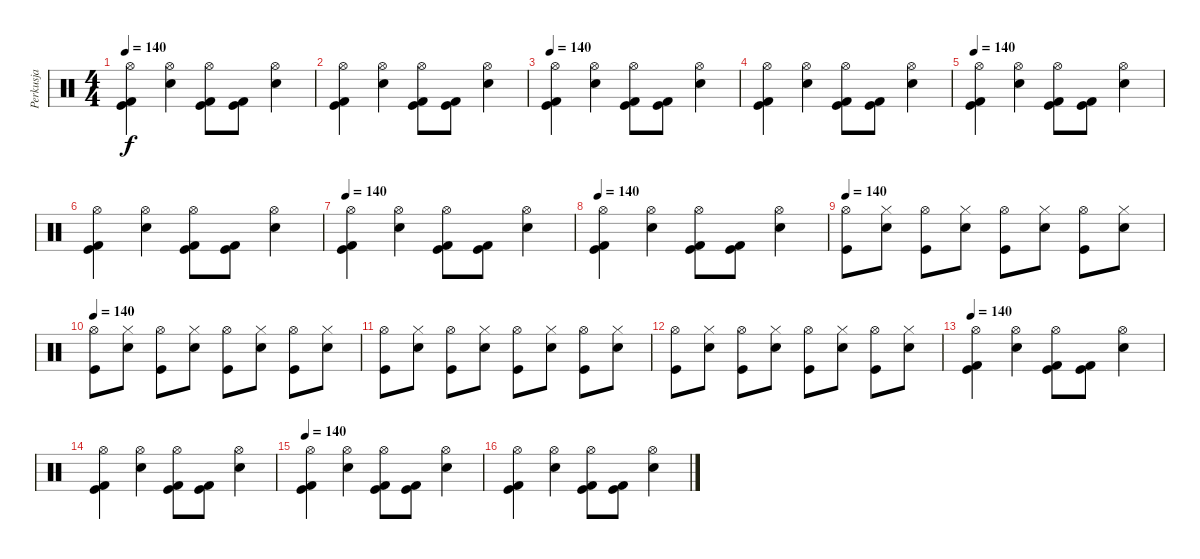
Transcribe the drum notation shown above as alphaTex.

\track ("Perkusja" "Perkusja") {instrument percussion}
\staff {score}
\articulation defaults
\ts (4 4)
\tempo 140
\clef neutral
\ks c
("Hi-Hat (open)" "Kick (hit)" "Kick (hit) 2").4{dy f} ("Hi-Hat (open)" "Snare (hit) 2").4 ("Hi-Hat (open)" "Kick (hit)" "Kick (hit) 2").8 ("Kick (hit)" "Kick (hit) 2").8 ("Hi-Hat (open)" "Snare (hit) 2").4 |
("Hi-Hat (open)" "Kick (hit)" "Kick (hit) 2").4 ("Hi-Hat (open)" "Snare (hit) 2").4 ("Hi-Hat (open)" "Kick (hit)" "Kick (hit) 2").8 ("Kick (hit)" "Kick (hit) 2").8 ("Hi-Hat (open)" "Snare (hit) 2").4 |
\tempo 140
("Hi-Hat (open)" "Kick (hit)" "Kick (hit) 2").4 ("Hi-Hat (open)" "Snare (hit) 2").4 ("Hi-Hat (open)" "Kick (hit)" "Kick (hit) 2").8 ("Kick (hit)" "Kick (hit) 2").8 ("Hi-Hat (open)" "Snare (hit) 2").4 |
("Hi-Hat (open)" "Kick (hit)" "Kick (hit) 2").4 ("Hi-Hat (open)" "Snare (hit) 2").4 ("Hi-Hat (open)" "Kick (hit)" "Kick (hit) 2").8 ("Kick (hit)" "Kick (hit) 2").8 ("Hi-Hat (open)" "Snare (hit) 2").4 |
\tempo 140
("Hi-Hat (open)" "Kick (hit)" "Kick (hit) 2").4 ("Hi-Hat (open)" "Snare (hit) 2").4 ("Hi-Hat (open)" "Kick (hit)" "Kick (hit) 2").8 ("Kick (hit)" "Kick (hit) 2").8 ("Hi-Hat (open)" "Snare (hit) 2").4 |
("Hi-Hat (open)" "Kick (hit)" "Kick (hit) 2").4 ("Hi-Hat (open)" "Snare (hit) 2").4 ("Hi-Hat (open)" "Kick (hit)" "Kick (hit) 2").8 ("Kick (hit)" "Kick (hit) 2").8 ("Hi-Hat (open)" "Snare (hit) 2").4 |
\tempo 140
("Hi-Hat (open)" "Kick (hit)" "Kick (hit) 2").4 ("Hi-Hat (open)" "Snare (hit) 2").4 ("Hi-Hat (open)" "Kick (hit)" "Kick (hit) 2").8 ("Kick (hit)" "Kick (hit) 2").8 ("Hi-Hat (open)" "Snare (hit) 2").4 |
\tempo 140
("Hi-Hat (open)" "Kick (hit)" "Kick (hit) 2").4 ("Hi-Hat (open)" "Snare (hit) 2").4 ("Hi-Hat (open)" "Kick (hit)" "Kick (hit) 2").8 ("Kick (hit)" "Kick (hit) 2").8 ("Hi-Hat (open)" "Snare (hit) 2").4 |
\tempo 140
("Hi-Hat (open)" "Kick (hit)").8 ("Hi-Hat (closed)" "Snare (hit) 2").8 ("Hi-Hat (open)" "Kick (hit)").8 ("Hi-Hat (closed)" "Snare (hit) 2").8 ("Hi-Hat (open)" "Kick (hit)").8 ("Hi-Hat (closed)" "Snare (hit) 2").8 ("Hi-Hat (open)" "Kick (hit)").8 ("Hi-Hat (closed)" "Snare (hit) 2").8 |
\tempo 140
("Hi-Hat (open)" "Kick (hit)").8 ("Hi-Hat (closed)" "Snare (hit) 2").8 ("Hi-Hat (open)" "Kick (hit)").8 ("Hi-Hat (closed)" "Snare (hit) 2").8 ("Hi-Hat (open)" "Kick (hit)").8 ("Hi-Hat (closed)" "Snare (hit) 2").8 ("Hi-Hat (open)" "Kick (hit)").8 ("Hi-Hat (closed)" "Snare (hit) 2").8 |
("Hi-Hat (open)" "Kick (hit)").8 ("Hi-Hat (closed)" "Snare (hit) 2").8 ("Hi-Hat (open)" "Kick (hit)").8 ("Hi-Hat (closed)" "Snare (hit) 2").8 ("Hi-Hat (open)" "Kick (hit)").8 ("Hi-Hat (closed)" "Snare (hit) 2").8 ("Hi-Hat (open)" "Kick (hit)").8 ("Hi-Hat (closed)" "Snare (hit) 2").8 |
("Hi-Hat (open)" "Kick (hit)").8 ("Hi-Hat (closed)" "Snare (hit) 2").8 ("Hi-Hat (open)" "Kick (hit)").8 ("Hi-Hat (closed)" "Snare (hit) 2").8 ("Hi-Hat (open)" "Kick (hit)").8 ("Hi-Hat (closed)" "Snare (hit) 2").8 ("Hi-Hat (open)" "Kick (hit)").8 ("Hi-Hat (closed)" "Snare (hit) 2").8 |
\tempo 140
("Hi-Hat (open)" "Kick (hit)" "Kick (hit) 2").4 ("Hi-Hat (open)" "Snare (hit) 2").4 ("Hi-Hat (open)" "Kick (hit)" "Kick (hit) 2").8 ("Kick (hit)" "Kick (hit) 2").8 ("Hi-Hat (open)" "Snare (hit) 2").4 |
("Hi-Hat (open)" "Kick (hit)" "Kick (hit) 2").4 ("Hi-Hat (open)" "Snare (hit) 2").4 ("Hi-Hat (open)" "Kick (hit)" "Kick (hit) 2").8 ("Kick (hit)" "Kick (hit) 2").8 ("Hi-Hat (open)" "Snare (hit) 2").4 |
\tempo 140
("Hi-Hat (open)" "Kick (hit)" "Kick (hit) 2").4 ("Hi-Hat (open)" "Snare (hit) 2").4 ("Hi-Hat (open)" "Kick (hit)" "Kick (hit) 2").8 ("Kick (hit)" "Kick (hit) 2").8 ("Hi-Hat (open)" "Snare (hit) 2").4 |
("Hi-Hat (open)" "Kick (hit)" "Kick (hit) 2").4 ("Hi-Hat (open)" "Snare (hit) 2").4 ("Hi-Hat (open)" "Kick (hit)" "Kick (hit) 2").8 ("Kick (hit)" "Kick (hit) 2").8 ("Hi-Hat (open)" "Snare (hit) 2").4
